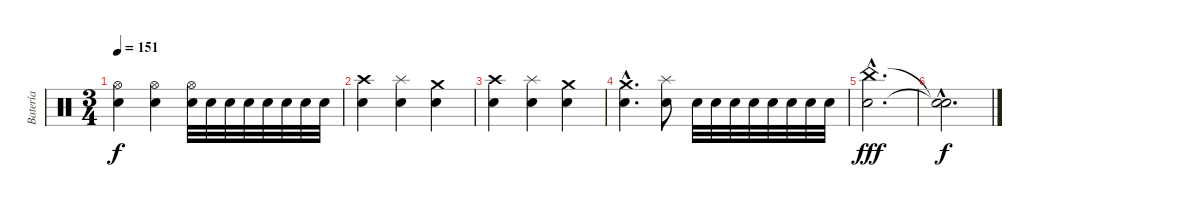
\track ("Batería" "Batería") {instrument percussion}
\staff {score}
\articulation defaults
\ts (3 4)
\tempo 151
\clef neutral
\ks c
("Hi-Hat (open)" "Snare (hit) 2").4{dy f} ("Hi-Hat (open)" "Snare (hit) 2").4 ("Hi-Hat (open)" "Snare (hit) 2").32 "Snare (hit) 2".32 "Snare (hit) 2".32 "Snare (hit) 2".32 "Snare (hit) 2".32 "Snare (hit) 2".32 "Snare (hit) 2".32 "Snare (hit) 2".32 |
("Crash high (hit)" "Snare (hit) 2").4 ("Splash (hit)" "Snare (hit) 2").4 ("Crash medium (hit)" "Snare (hit) 2").4 |
("Crash high (hit)" "Snare (hit) 2").4 ("Splash (hit)" "Snare (hit) 2").4 ("Crash medium (hit)" "Snare (hit) 2").4 |
("Crash medium (hit)"{hac} "Snare (hit) 2"{hac}).4{d} ("Splash (hit)" "Snare (hit) 2").8 "Snare (hit) 2".32 "Snare (hit) 2".32 "Snare (hit) 2".32 "Snare (hit) 2".32 "Snare (hit) 2".32 "Snare (hit) 2".32 "Snare (hit) 2".32 "Snare (hit) 2".32 |
("China (hit)"{hac} "Snare (hit) 2"{hac}).2{d dy fff} |
("Snare (hit)"{hac t} "Snare (hit)"{hac t}).2{d dy f}
